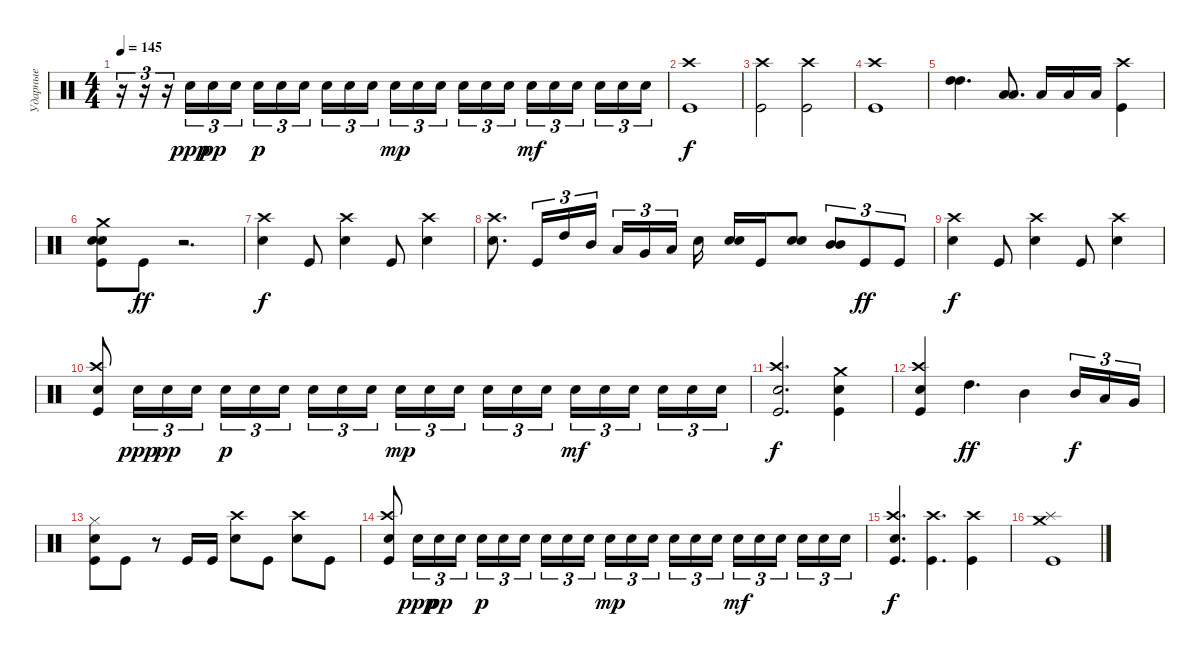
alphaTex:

\track ("Ударные" "Ударные") {instrument percussion}
\staff {score}
\articulation defaults
\ts (4 4)
\tempo 145
\clef neutral
\ks c
r.16{tu (3 2) dy f} r.16{tu (3 2)} r.16{tu (3 2)} "Snare (hit) 2".16{tu (3 2) dy ppp} "Snare (hit) 2".16{tu (3 2) dy pp} "Snare (hit) 2".16{tu (3 2)} "Snare (hit) 2".16{tu (3 2) dy p} "Snare (hit) 2".16{tu (3 2)} "Snare (hit) 2".16{tu (3 2) beam splitsecondary} "Snare (hit) 2".16{tu (3 2)} "Snare (hit) 2".16{tu (3 2)} "Snare (hit) 2".16{tu (3 2)} "Snare (hit) 2".16{tu (3 2) dy mp} "Snare (hit) 2".16{tu (3 2)} "Snare (hit) 2".16{tu (3 2) beam splitsecondary} "Snare (hit) 2".16{tu (3 2)} "Snare (hit) 2".16{tu (3 2)} "Snare (hit) 2".16{tu (3 2)} "Snare (hit) 2".16{tu (3 2) dy mf} "Snare (hit) 2".16{tu (3 2)} "Snare (hit) 2".16{tu (3 2) beam splitsecondary} "Snare (hit) 2".16{tu (3 2)} "Snare (hit) 2".16{tu (3 2)} "Snare (hit) 2".16{tu (3 2)} |
("Crash high (hit)" "Kick (hit)").1{dy f} |
("Crash high (hit)" "Kick (hit)").2 ("Crash high (hit)" "Kick (hit)").2 |
("Crash high (hit)" "Kick (hit)").1 |
("High Tom (hit)" "High Tom (hit)").4{d bd 60} ("Low Tom (hit)" "Low Tom (hit)").8{d bd 60} "Low Tom (hit)".16 "Low Tom (hit)".16 "Low Tom (hit)".16 ("Crash high (hit)" "Kick (hit)").4 |
("Crash medium (hit)" "Snare (hit) 2" "Snare (hit) 2" "Kick (hit)").8{bd 60} "Kick (hit)".8{dy ff} r.2{d} |
("Crash high (hit)" "Snare (hit) 2").4{dy f} "Kick (hit)".8 ("Crash high (hit)" "Snare (hit) 2").4 "Kick (hit)".8 ("Crash high (hit)" "Snare (hit) 2").4 |
("Crash high (hit)" "Snare (hit) 2").8{d} "Kick (hit)".16{tu (3 2)} "High Tom (hit)".16{tu (3 2)} "Mid Tom (hit)".16{tu (3 2) beam splitsecondary} "Low Tom (hit)".16{tu (3 2)} "Very Low Tom (hit)".16{tu (3 2)} "Low Floor Tom (hit)".16{tu (3 2) beam splitsecondary} "Snare (hit) 2".16 ("Snare (hit) 2" "Snare (hit) 2").16{bd 60} "Kick (hit)".16 ("Snare (hit) 2" "Snare (hit) 2").8{bd 60} ("Mid Tom (hit)" "Mid Tom (hit)").8{tu (3 2) bd 60} "Kick (hit)".8{tu (3 2) dy ff} "Kick (hit)".8{tu (3 2)} |
("Crash high (hit)" "Snare (hit) 2").4{dy f} "Kick (hit)".8 ("Crash high (hit)" "Snare (hit) 2").4 "Kick (hit)".8 ("Crash high (hit)" "Snare (hit) 2").4 |
("Crash high (hit)" "Snare (hit) 2" "Kick (hit)").8 "Snare (hit) 2".16{tu (3 2) dy ppp} "Snare (hit) 2".16{tu (3 2) dy pp} "Snare (hit) 2".16{tu (3 2)} "Snare (hit) 2".16{tu (3 2) dy p} "Snare (hit) 2".16{tu (3 2)} "Snare (hit) 2".16{tu (3 2) beam splitsecondary} "Snare (hit) 2".16{tu (3 2)} "Snare (hit) 2".16{tu (3 2)} "Snare (hit) 2".16{tu (3 2)} "Snare (hit) 2".16{tu (3 2) dy mp} "Snare (hit) 2".16{tu (3 2)} "Snare (hit) 2".16{tu (3 2) beam splitsecondary} "Snare (hit) 2".16{tu (3 2)} "Snare (hit) 2".16{tu (3 2)} "Snare (hit) 2".16{tu (3 2)} "Snare (hit) 2".16{tu (3 2) dy mf} "Snare (hit) 2".16{tu (3 2)} "Snare (hit) 2".16{tu (3 2) beam splitsecondary} "Snare (hit) 2".16{tu (3 2)} "Snare (hit) 2".16{tu (3 2)} "Snare (hit) 2".16{tu (3 2)} |
("Crash high (hit)" "Snare (hit) 2" "Kick (hit)").2{d dy f} ("Crash medium (hit)" "Snare (hit) 2" "Kick (hit)").4 |
("Crash high (hit)" "Snare (hit) 2" "Kick (hit)").4 "High Tom (hit)".4{d dy ff} "Mid Tom (hit)".4 "Mid Tom (hit)".16{tu (3 2) dy f} "Low Tom (hit)".16{tu (3 2)} "Very Low Tom (hit)".16{tu (3 2)} |
("Hi-Hat (closed)" "Snare (hit) 2" "Kick (hit)").8 "Kick (hit)".8 r.8 "Kick (hit)".16 "Kick (hit)".16 ("Crash high (hit)" "Snare (hit) 2").8 "Kick (hit)".8 ("Crash high (hit)" "Snare (hit) 2").8 "Kick (hit)".8 |
("Crash high (hit)" "Snare (hit) 2" "Kick (hit)").8 "Snare (hit) 2".16{tu (3 2) dy ppp} "Snare (hit) 2".16{tu (3 2) dy pp} "Snare (hit) 2".16{tu (3 2)} "Snare (hit) 2".16{tu (3 2) dy p} "Snare (hit) 2".16{tu (3 2)} "Snare (hit) 2".16{tu (3 2) beam splitsecondary} "Snare (hit) 2".16{tu (3 2)} "Snare (hit) 2".16{tu (3 2)} "Snare (hit) 2".16{tu (3 2)} "Snare (hit) 2".16{tu (3 2) dy mp} "Snare (hit) 2".16{tu (3 2)} "Snare (hit) 2".16{tu (3 2) beam splitsecondary} "Snare (hit) 2".16{tu (3 2)} "Snare (hit) 2".16{tu (3 2)} "Snare (hit) 2".16{tu (3 2)} "Snare (hit) 2".16{tu (3 2) dy mf} "Snare (hit) 2".16{tu (3 2)} "Snare (hit) 2".16{tu (3 2) beam splitsecondary} "Snare (hit) 2".16{tu (3 2)} "Snare (hit) 2".16{tu (3 2)} "Snare (hit) 2".16{tu (3 2)} |
("Crash high (hit)" "Snare (hit) 2" "Kick (hit)").4{d dy f} ("Crash high (hit)" "Kick (hit)").4{d} ("Crash high (hit)" "Kick (hit)").4 |
("Crash medium (hit)" "Splash (hit)" "Kick (hit)").1
